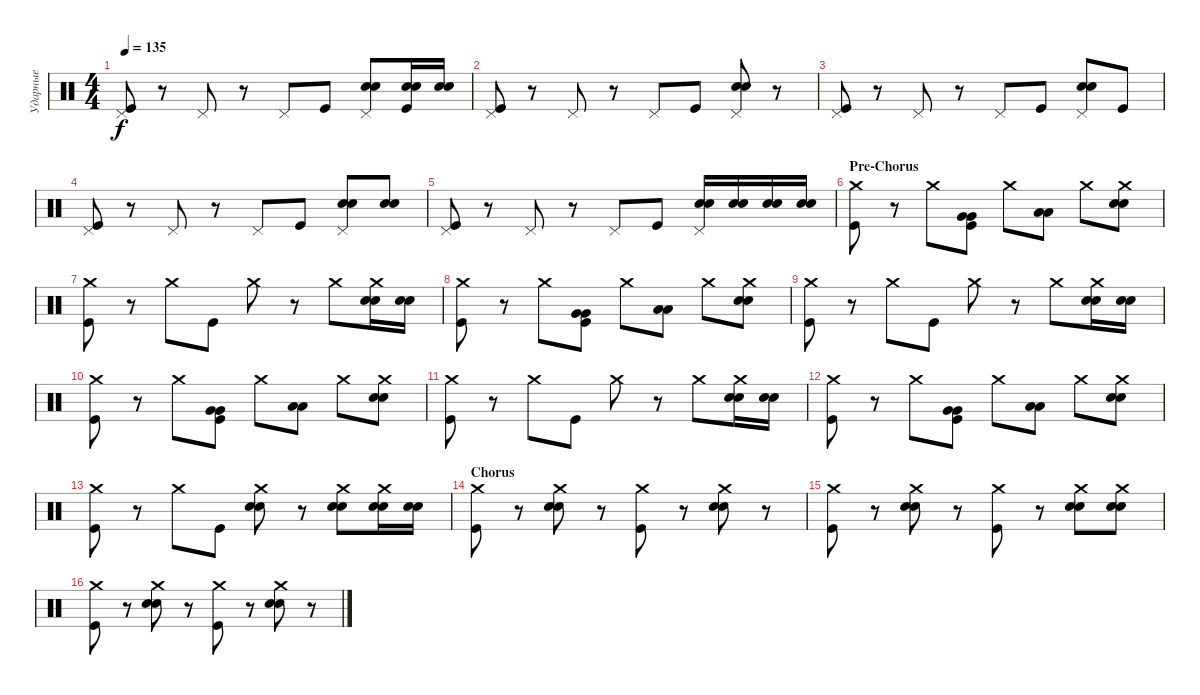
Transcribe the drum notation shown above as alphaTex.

\track ("Ударные" "Ударные") {instrument percussion}
\staff {score}
\articulation defaults
\ts (4 4)
\tempo 135
\clef neutral
\ks c
("Pedal Hi-Hat (hit)" "Kick (hit)").8{dy f} r.8 "Pedal Hi-Hat (hit)".8 r.8 "Pedal Hi-Hat (hit)".8 "Kick (hit)".8 ("Pedal Hi-Hat (hit)" "Electric Snare (hit)" "Electric Snare (hit)").8 ("Electric Snare (hit)" "Electric Snare (hit)" "Kick (hit)").16 ("Electric Snare (hit)" "Electric Snare (hit)").16 |
("Pedal Hi-Hat (hit)" "Kick (hit)").8 r.8 "Pedal Hi-Hat (hit)".8 r.8 "Pedal Hi-Hat (hit)".8 "Kick (hit)".8 ("Pedal Hi-Hat (hit)" "Electric Snare (hit)" "Electric Snare (hit)").8 r.8 |
("Pedal Hi-Hat (hit)" "Kick (hit)").8 r.8 "Pedal Hi-Hat (hit)".8 r.8 "Pedal Hi-Hat (hit)".8 "Kick (hit)".8 ("Pedal Hi-Hat (hit)" "Electric Snare (hit)" "Electric Snare (hit)").8 "Kick (hit)".8 |
("Pedal Hi-Hat (hit)" "Kick (hit)").8 r.8 "Pedal Hi-Hat (hit)".8 r.8 "Pedal Hi-Hat (hit)".8 "Kick (hit)".8 ("Pedal Hi-Hat (hit)" "Electric Snare (hit)" "Electric Snare (hit)").8 ("Electric Snare (hit)" "Electric Snare (hit)").8 |
("Pedal Hi-Hat (hit)" "Kick (hit)").8 r.8 "Pedal Hi-Hat (hit)".8 r.8 "Pedal Hi-Hat (hit)".8 "Kick (hit)".8 ("Pedal Hi-Hat (hit)" "Electric Snare (hit)" "Electric Snare (hit)").16 ("Electric Snare (hit)" "Electric Snare (hit)").16 ("Electric Snare (hit)" "Electric Snare (hit)").16 ("Electric Snare (hit)" "Electric Snare (hit)").16 |
\section ("" "Pre-Chorus")
("Crash medium (hit)" "Kick (hit)").8 r.8 "Crash medium (hit)".8 ("Very Low Tom (hit)" "Very Low Tom (hit)" "Kick (hit)").8 "Crash medium (hit)".8 ("Low Floor Tom (hit)" "Low Floor Tom (hit)").8 "Crash medium (hit)".8 ("Crash medium (hit)" "Electric Snare (hit)" "Electric Snare (hit)").8 |
("Crash medium (hit)" "Kick (hit)").8 r.8 "Crash medium (hit)".8 "Kick (hit)".8 "Crash medium (hit)".8 r.8 "Crash medium (hit)".8 ("Crash medium (hit)" "Electric Snare (hit)" "Electric Snare (hit)").16 ("Electric Snare (hit)" "Electric Snare (hit)").16 |
("Crash medium (hit)" "Kick (hit)").8 r.8 "Crash medium (hit)".8 ("Very Low Tom (hit)" "Very Low Tom (hit)" "Kick (hit)").8 "Crash medium (hit)".8 ("Low Floor Tom (hit)" "Low Floor Tom (hit)").8 "Crash medium (hit)".8 ("Crash medium (hit)" "Electric Snare (hit)" "Electric Snare (hit)").8 |
("Crash medium (hit)" "Kick (hit)").8 r.8 "Crash medium (hit)".8 "Kick (hit)".8 "Crash medium (hit)".8 r.8 "Crash medium (hit)".8 ("Crash medium (hit)" "Electric Snare (hit)" "Electric Snare (hit)").16 ("Electric Snare (hit)" "Electric Snare (hit)").16 |
("Crash medium (hit)" "Kick (hit)").8 r.8 "Crash medium (hit)".8 ("Very Low Tom (hit)" "Very Low Tom (hit)" "Kick (hit)").8 "Crash medium (hit)".8 ("Low Floor Tom (hit)" "Low Floor Tom (hit)").8 "Crash medium (hit)".8 ("Crash medium (hit)" "Electric Snare (hit)" "Electric Snare (hit)").8 |
("Crash medium (hit)" "Kick (hit)").8 r.8 "Crash medium (hit)".8 "Kick (hit)".8 "Crash medium (hit)".8 r.8 "Crash medium (hit)".8 ("Crash medium (hit)" "Electric Snare (hit)" "Electric Snare (hit)").16 ("Electric Snare (hit)" "Electric Snare (hit)").16 |
("Crash medium (hit)" "Kick (hit)").8 r.8 "Crash medium (hit)".8 ("Very Low Tom (hit)" "Very Low Tom (hit)" "Kick (hit)").8 "Crash medium (hit)".8 ("Low Floor Tom (hit)" "Low Floor Tom (hit)").8 "Crash medium (hit)".8 ("Crash medium (hit)" "Electric Snare (hit)" "Electric Snare (hit)").8 |
("Crash medium (hit)" "Kick (hit)").8 r.8 "Crash medium (hit)".8 "Kick (hit)".8 ("Crash medium (hit)" "Electric Snare (hit)" "Electric Snare (hit)").8 r.8 ("Crash medium (hit)" "Electric Snare (hit)" "Electric Snare (hit)").8 ("Crash medium (hit)" "Electric Snare (hit)" "Electric Snare (hit)").16 ("Electric Snare (hit)" "Electric Snare (hit)").16 |
\section ("" "Chorus")
("Crash medium (hit)" "Kick (hit)").8 r.8 ("Crash medium (hit)" "Electric Snare (hit)" "Electric Snare (hit)").8 r.8 ("Crash medium (hit)" "Kick (hit)").8 r.8 ("Crash medium (hit)" "Electric Snare (hit)" "Electric Snare (hit)").8 r.8 |
("Crash medium (hit)" "Kick (hit)").8 r.8 ("Crash medium (hit)" "Electric Snare (hit)" "Electric Snare (hit)").8 r.8 ("Crash medium (hit)" "Kick (hit)").8 r.8 ("Crash medium (hit)" "Electric Snare (hit)" "Electric Snare (hit)").8 ("Crash medium (hit)" "Electric Snare (hit)" "Electric Snare (hit)").8 |
("Crash medium (hit)" "Kick (hit)").8 r.8 ("Crash medium (hit)" "Electric Snare (hit)" "Electric Snare (hit)").8 r.8 ("Crash medium (hit)" "Kick (hit)").8 r.8 ("Crash medium (hit)" "Electric Snare (hit)" "Electric Snare (hit)").8 r.8
